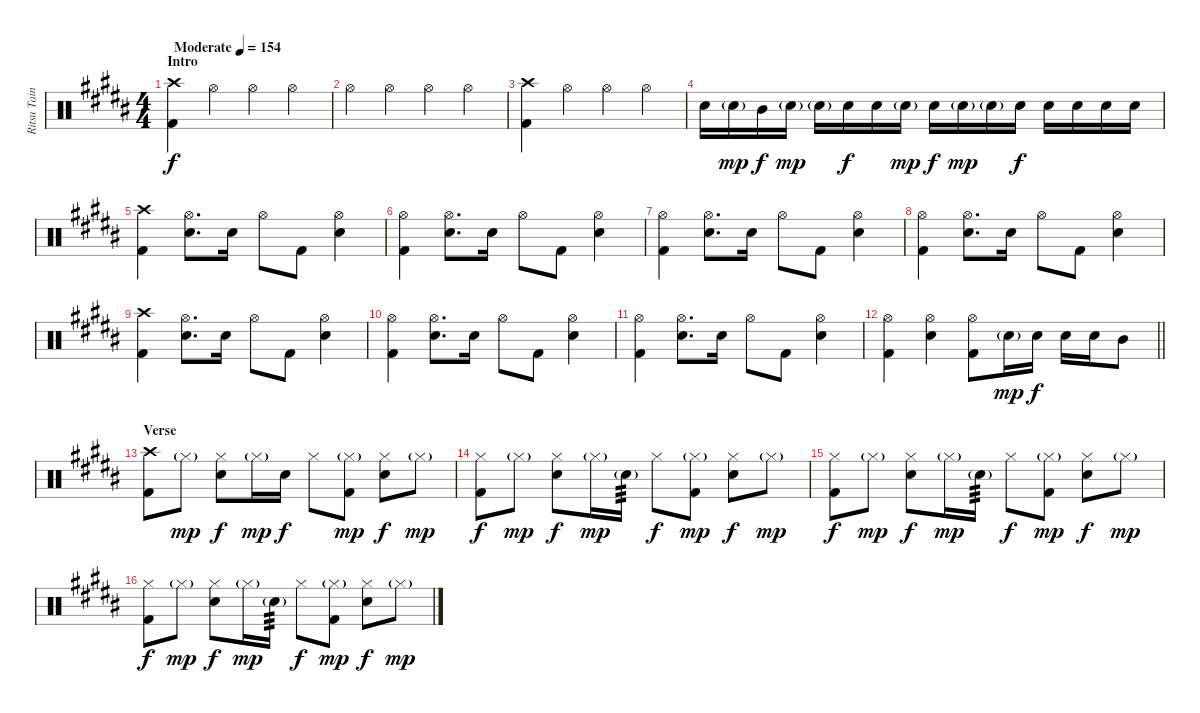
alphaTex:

\track ("Ritsu Tainaka" "Ritsu Tain") {instrument percussion}
\staff {score}
\articulation defaults
\ts (4 4)
\section ("" "Intro")
\tempo (154 "Moderate")
\clef neutral
\ks b
("Crash high (hit)" "Kick (hit) 2").4{dy f} "Hi-Hat (open)".4 "Hi-Hat (open)".4 "Hi-Hat (open)".4 |
"Hi-Hat (open)".4 "Hi-Hat (open)".4 "Hi-Hat (open)".4 "Hi-Hat (open)".4 |
("Crash high (hit)" "Kick (hit) 2").4 "Hi-Hat (open)".4 "Hi-Hat (open)".4 "Hi-Hat (open)".4 |
"Snare (hit) 2".16 "Snare (hit) 2"{g}.16{dy mp} "Mid Tom (hit)".16{dy f} "Snare (hit) 2"{g}.16{dy mp} "Snare (hit) 2"{g}.16 "Snare (hit) 2".16{dy f} "Snare (hit) 2".16 "Snare (hit) 2"{g}.16{dy mp} "Snare (hit) 2".16{dy f} "Snare (hit) 2"{g}.16{dy mp} "Snare (hit) 2"{g}.16 "Snare (hit) 2".16{dy f} "Snare (hit) 2".16 "Snare (hit) 2".16 "Snare (hit) 2".16 "Snare (hit) 2".16 |
("Crash high (hit)" "Kick (hit) 2").4 ("Hi-Hat (open)" "Snare (hit) 2").8{d} "Snare (hit) 2".16 "Hi-Hat (open)".8 "Kick (hit) 2".8 ("Hi-Hat (open)" "Snare (hit) 2").4 |
("Hi-Hat (open)" "Kick (hit) 2").4 ("Hi-Hat (open)" "Snare (hit) 2").8{d} "Snare (hit) 2".16 "Hi-Hat (open)".8 "Kick (hit) 2".8 ("Hi-Hat (open)" "Snare (hit) 2").4 |
("Hi-Hat (open)" "Kick (hit) 2").4 ("Hi-Hat (open)" "Snare (hit) 2").8{d} "Snare (hit) 2".16 "Hi-Hat (open)".8 "Kick (hit) 2".8 ("Hi-Hat (open)" "Snare (hit) 2").4 |
("Hi-Hat (open)" "Kick (hit) 2").4 ("Hi-Hat (open)" "Snare (hit) 2").8{d} "Snare (hit) 2".16 "Hi-Hat (open)".8 "Kick (hit) 2".8 ("Hi-Hat (open)" "Snare (hit) 2").4 |
("Crash high (hit)" "Kick (hit) 2").4 ("Hi-Hat (open)" "Snare (hit) 2").8{d} "Snare (hit) 2".16 "Hi-Hat (open)".8 "Kick (hit) 2".8 ("Hi-Hat (open)" "Snare (hit) 2").4 |
("Hi-Hat (open)" "Kick (hit) 2").4 ("Hi-Hat (open)" "Snare (hit) 2").8{d} "Snare (hit) 2".16 "Hi-Hat (open)".8 "Kick (hit) 2".8 ("Hi-Hat (open)" "Snare (hit) 2").4 |
("Hi-Hat (open)" "Kick (hit) 2").4 ("Hi-Hat (open)" "Snare (hit) 2").8{d} "Snare (hit) 2".16 "Hi-Hat (open)".8 "Kick (hit) 2".8 ("Hi-Hat (open)" "Snare (hit) 2").4 |
\barLineRight lightlight
("Hi-Hat (open)" "Kick (hit) 2").4 ("Hi-Hat (open)" "Snare (hit) 2").4 ("Hi-Hat (open)" "Kick (hit) 2").8 "Snare (hit) 2"{g}.16{dy mp} "Snare (hit) 2".16{dy f} "Snare (hit) 2".16 "Snare (hit) 2".16 "Mid Tom (hit)".8 |
\section ("" "Verse")
("Crash high (hit)" "Kick (hit) 2").8 "Hi-Hat (closed)"{g}.8{dy mp} ("Hi-Hat (closed)" "Snare (hit) 2").8{dy f} "Hi-Hat (closed)"{g}.16{dy mp} "Snare (hit) 2".16{dy f} "Hi-Hat (closed)".8 ("Hi-Hat (closed)"{g} "Kick (hit) 2").8{dy mp} ("Hi-Hat (closed)" "Snare (hit) 2").8{dy f} "Hi-Hat (closed)"{g}.8{dy mp} |
("Hi-Hat (closed)" "Kick (hit) 2").8{dy f} "Hi-Hat (closed)"{g}.8{dy mp} ("Hi-Hat (closed)" "Snare (hit) 2").8{dy f} "Hi-Hat (closed)"{g}.16{dy mp} "Snare (hit) 2"{g}.16{tp 3} "Hi-Hat (closed)".8{dy f} ("Hi-Hat (closed)"{g} "Kick (hit) 2").8{dy mp} ("Hi-Hat (closed)" "Snare (hit) 2").8{dy f} "Hi-Hat (closed)"{g}.8{dy mp} |
("Hi-Hat (closed)" "Kick (hit) 2").8{dy f} "Hi-Hat (closed)"{g}.8{dy mp} ("Hi-Hat (closed)" "Snare (hit) 2").8{dy f} "Hi-Hat (closed)"{g}.16{dy mp} "Snare (hit) 2"{g}.16{tp 3} "Hi-Hat (closed)".8{dy f} ("Hi-Hat (closed)"{g} "Kick (hit) 2").8{dy mp} ("Hi-Hat (closed)" "Snare (hit) 2").8{dy f} "Hi-Hat (closed)"{g}.8{dy mp} |
("Hi-Hat (closed)" "Kick (hit) 2").8{dy f} "Hi-Hat (closed)"{g}.8{dy mp} ("Hi-Hat (closed)" "Snare (hit) 2").8{dy f} "Hi-Hat (closed)"{g}.16{dy mp} "Snare (hit) 2"{g}.16{tp 3} "Hi-Hat (closed)".8{dy f} ("Hi-Hat (closed)"{g} "Kick (hit) 2").8{dy mp} ("Hi-Hat (closed)" "Snare (hit) 2").8{dy f} "Hi-Hat (closed)"{g}.8{dy mp}
